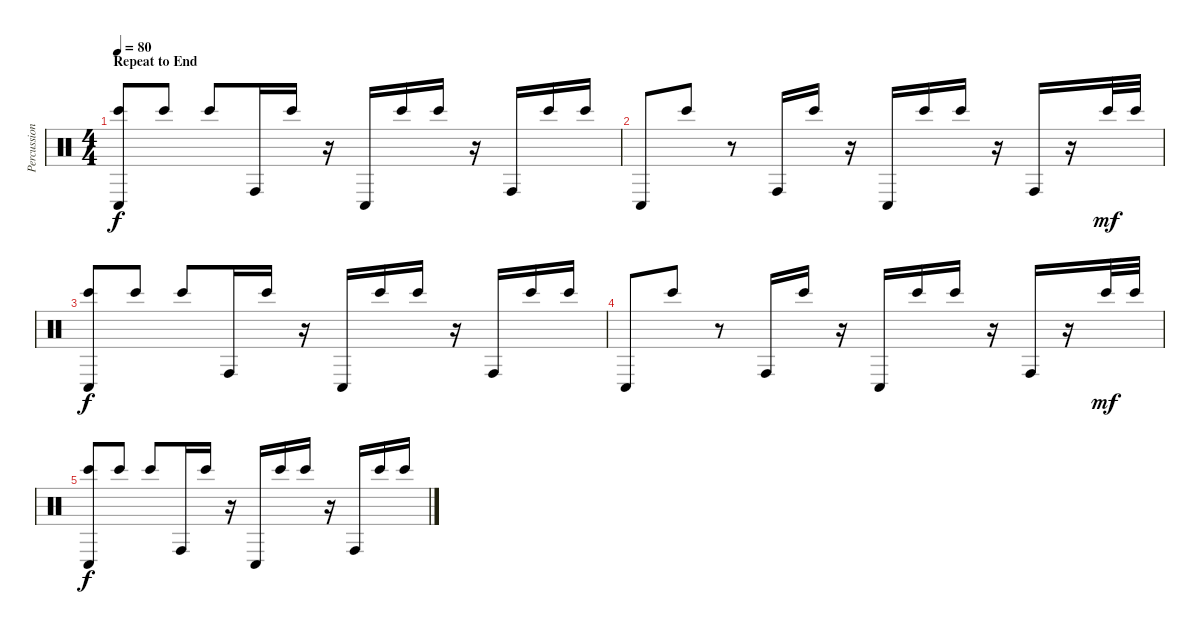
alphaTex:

\track ("Percussion" "Percussion") {instrument percussion}
\staff {score}
\articulation defaults
\ts (4 4)
\section ("" "Repeat to End")
\tempo 80
\clef neutral
\ks c
("Conga low (hit)" "Bongo High (hit)").8{dy f} "Bongo High (hit)".8 "Bongo High (hit)".8 "Conga high (hit)".16 "Bongo High (hit)".16 r.16 "Conga low (hit)".16 "Bongo High (hit)".16 "Bongo High (hit)".16 r.16 "Conga high (hit)".16 "Bongo High (hit)".16 "Bongo High (hit)".16 |
"Conga low (hit)".8 "Bongo High (hit)".8 r.8 "Conga high (hit)".16 "Bongo High (hit)".16 r.16 "Conga low (hit)".16 "Bongo High (hit)".16 "Bongo High (hit)".16 r.16 "Conga high (hit)".16 r.16 "Bongo High (hit)".32{dy mf} "Bongo High (hit)".32 |
("Conga low (hit)" "Bongo High (hit)").8{dy f} "Bongo High (hit)".8 "Bongo High (hit)".8 "Conga high (hit)".16 "Bongo High (hit)".16 r.16 "Conga low (hit)".16 "Bongo High (hit)".16 "Bongo High (hit)".16 r.16 "Conga high (hit)".16 "Bongo High (hit)".16 "Bongo High (hit)".16 |
"Conga low (hit)".8 "Bongo High (hit)".8 r.8 "Conga high (hit)".16 "Bongo High (hit)".16 r.16 "Conga low (hit)".16 "Bongo High (hit)".16 "Bongo High (hit)".16 r.16 "Conga high (hit)".16 r.16 "Bongo High (hit)".32{dy mf} "Bongo High (hit)".32 |
("Conga low (hit)" "Bongo High (hit)").8{dy f} "Bongo High (hit)".8 "Bongo High (hit)".8 "Conga high (hit)".16 "Bongo High (hit)".16 r.16 "Conga low (hit)".16 "Bongo High (hit)".16 "Bongo High (hit)".16 r.16 "Conga high (hit)".16 "Bongo High (hit)".16 "Bongo High (hit)".16
